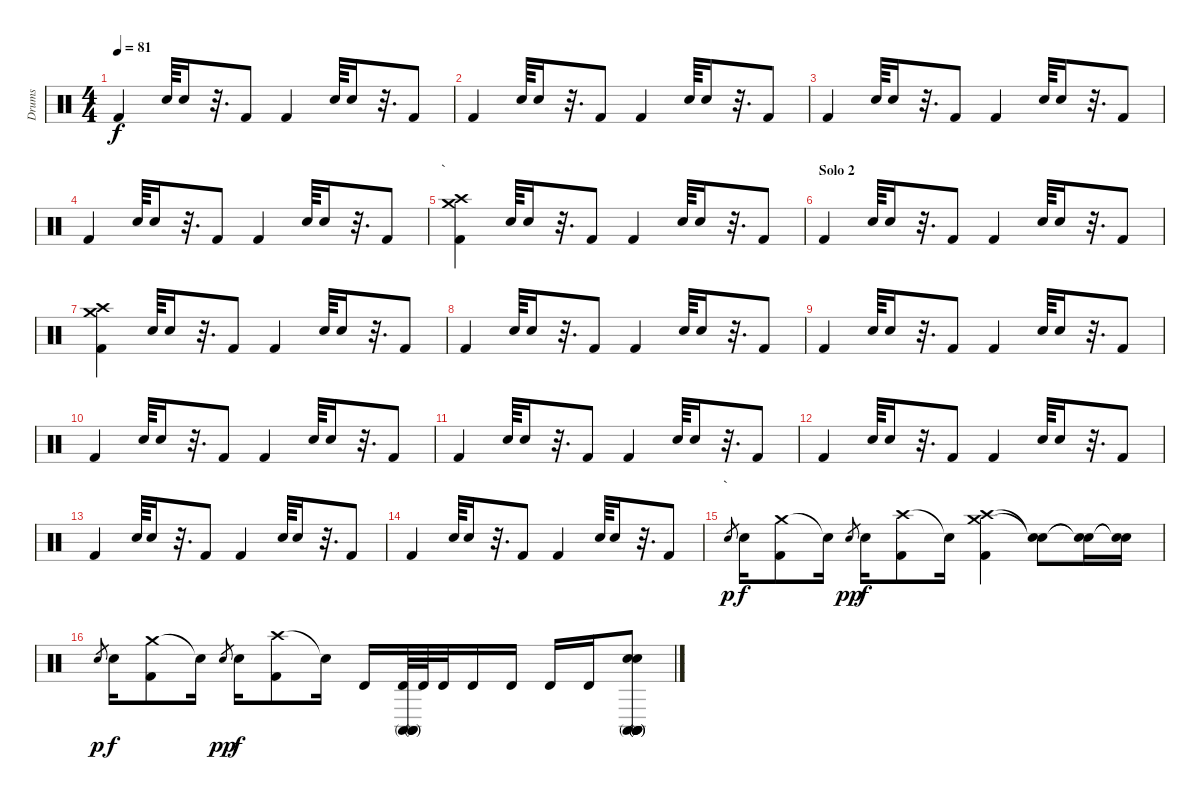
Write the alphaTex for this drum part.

\track ("Drums" "Drums") {instrument percussion}
\staff {score}
\articulation defaults
\ts (4 4)
\tempo 81
\clef neutral
\ks c "Kick (hit) 2".4{dy f} "Electric Snare (hit)".64 "Electric Snare (hit)".16
r.32{d} "Kick (hit) 2".8 "Kick (hit) 2".4 "Electric Snare (hit)".64 "Electric Snare (hit)".16 r.32{d} "Kick (hit) 2".8 |
"Kick (hit) 2".4 "Electric Snare (hit)".64 "Electric Snare (hit)".16 r.32{d} "Kick (hit) 2".8 "Kick (hit) 2".4 "Electric Snare (hit)".64 "Electric Snare (hit)".16 r.32{d} "Kick (hit) 2".8 |
"Kick (hit) 2".4 "Electric Snare (hit)".64 "Electric Snare (hit)".16 r.32{d} "Kick (hit) 2".8 "Kick (hit) 2".4 "Electric Snare (hit)".64 "Electric Snare (hit)".16 r.32{d} "Kick (hit) 2".8 |
"Kick (hit) 2".4 "Electric Snare (hit)".64 "Electric Snare (hit)".16 r.32{d} "Kick (hit) 2".8 "Kick (hit) 2".4 "Electric Snare (hit)".64 "Electric Snare (hit)".16 r.32{d} "Kick (hit) 2".8 |
\section ("" "`")
("Crash medium (hit)" "Crash high (hit)" "Kick (hit) 2").4 "Electric Snare (hit)".64 "Electric Snare (hit)".16 r.32{d} "Kick (hit) 2".8 "Kick (hit) 2".4 "Electric Snare (hit)".64 "Electric Snare (hit)".16 r.32{d} "Kick (hit) 2".8 |
\section ("" "Solo 2")
"Kick (hit) 2".4 "Electric Snare (hit)".64 "Electric Snare (hit)".16 r.32{d} "Kick (hit) 2".8 "Kick (hit) 2".4 "Electric Snare (hit)".64 "Electric Snare (hit)".16 r.32{d} "Kick (hit) 2".8 |
("Crash medium (hit)" "Crash high (hit)" "Kick (hit) 2").4 "Electric Snare (hit)".64 "Electric Snare (hit)".16 r.32{d} "Kick (hit) 2".8 "Kick (hit) 2".4 "Electric Snare (hit)".64 "Electric Snare (hit)".16 r.32{d} "Kick (hit) 2".8 |
"Kick (hit) 2".4 "Electric Snare (hit)".64 "Electric Snare (hit)".16 r.32{d} "Kick (hit) 2".8 "Kick (hit) 2".4 "Electric Snare (hit)".64 "Electric Snare (hit)".16 r.32{d} "Kick (hit) 2".8 |
"Kick (hit) 2".4 "Electric Snare (hit)".64 "Electric Snare (hit)".16 r.32{d} "Kick (hit) 2".8 "Kick (hit) 2".4 "Electric Snare (hit)".64 "Electric Snare (hit)".16 r.32{d} "Kick (hit) 2".8 |
"Kick (hit) 2".4 "Electric Snare (hit)".64 "Electric Snare (hit)".16 r.32{d} "Kick (hit) 2".8 "Kick (hit) 2".4 "Electric Snare (hit)".64 "Electric Snare (hit)".16 r.32{d} "Kick (hit) 2".8 |
"Kick (hit) 2".4 "Electric Snare (hit)".64 "Electric Snare (hit)".16 r.32{d} "Kick (hit) 2".8 "Kick (hit) 2".4 "Electric Snare (hit)".64 "Electric Snare (hit)".16 r.32{d} "Kick (hit) 2".8 |
"Kick (hit) 2".4 "Electric Snare (hit)".64 "Electric Snare (hit)".16 r.32{d} "Kick (hit) 2".8 "Kick (hit) 2".4 "Electric Snare (hit)".64 "Electric Snare (hit)".16 r.32{d} "Kick (hit) 2".8 |
"Kick (hit) 2".4 "Electric Snare (hit)".64 "Electric Snare (hit)".16 r.32{d} "Kick (hit) 2".8 "Kick (hit) 2".4 "Electric Snare (hit)".64 "Electric Snare (hit)".16 r.32{d} "Kick (hit) 2".8 |
"Kick (hit) 2".4 "Electric Snare (hit)".64 "Electric Snare (hit)".16 r.32{d} "Kick (hit) 2".8 "Kick (hit) 2".4 "Electric Snare (hit)".64 "Electric Snare (hit)".16 r.32{d} "Kick (hit) 2".8 |
\section ("" "`")
"Electric Snare (hit)".8{gr dy p} "Electric Snare (hit)".16{dy f} ("Crash medium (hit)" "Kick (hit) 2").8 "Snare (hit)"{t}.16 "Electric Snare (hit)".8{gr dy pp} "Electric Snare (hit)".16{dy f} ("Crash high (hit)" "Kick (hit) 2").8 "Snare (hit)"{t}.16 ("Crash high (hit)" "Crash medium (hit)" "Kick (hit) 2").4 ("Snare (hit)"{t} "Snare (hit)"{t}).8 ("Snare (hit)"{t} "Snare (hit)"{t}).16 ("Snare (hit)"{t} "Snare (hit)"{t}).16 |
"Electric Snare (hit)".8{gr dy p} "Electric Snare (hit)".16{dy f} ("Crash medium (hit)" "Kick (hit) 2").8 "Snare (hit)"{t}.16 "Electric Snare (hit)".8{gr dy pp} "Electric Snare (hit)".16{dy f} ("Crash high (hit)" "Kick (hit) 2").8 "Snare (hit)"{t}.16 "Timbale high (hit)".16 ("Timbale high (hit)" "Conga high (mute)" "Conga high (mute)" "Conga high (mute)").64 "Timbale high (hit)".64 "Timbale high (hit)".32 "Timbale high (hit)".16 "Timbale high (hit)".16 "Timbale high (hit)".16 "Timbale high (hit)".16 ("Snare (hit)"{x} "Conga high (mute)" "Conga high (mute)" "Conga high (mute)" "Conga high (mute)" "Snare (hit)"{x}).8
